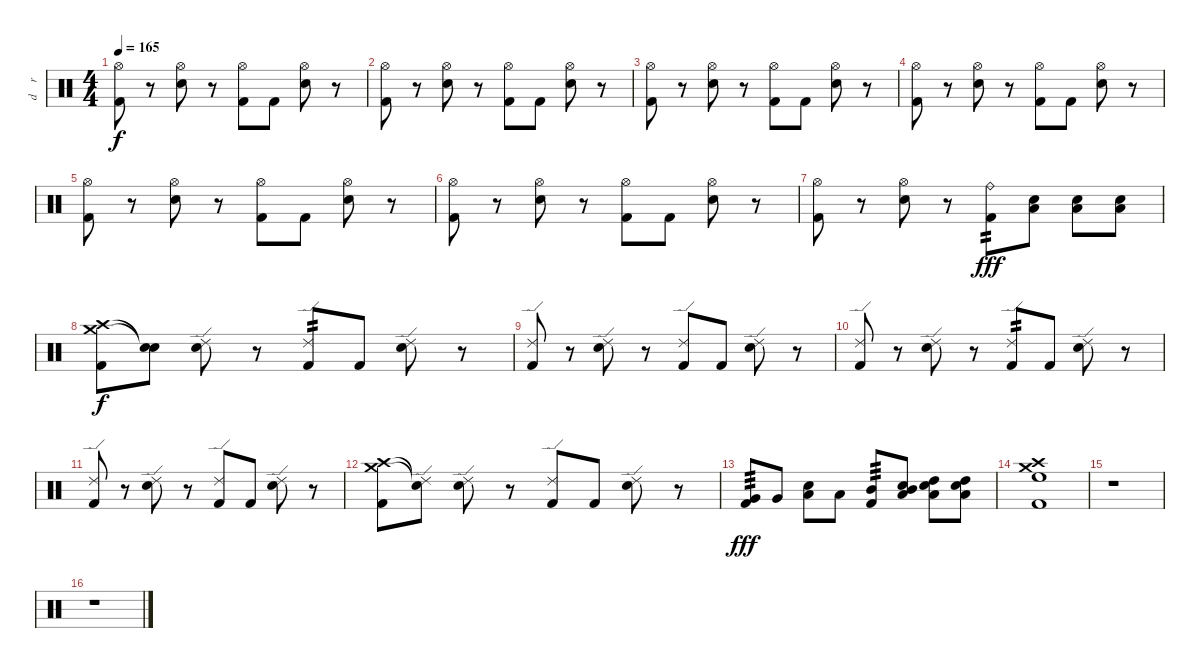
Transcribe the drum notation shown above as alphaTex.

\track ("d    r    u    m    s" "d    r    ") {instrument percussion}
\staff {score}
\articulation defaults
\ts (4 4)
\tempo 165
\clef neutral
\ks c
("Hi-Hat (open)" "Kick (hit) 2").8{dy f} r.8 ("Hi-Hat (open)" "Electric Snare (hit)").8 r.8 ("Hi-Hat (open)" "Kick (hit) 2").8 "Kick (hit) 2".8 ("Hi-Hat (open)" "Electric Snare (hit)").8 r.8 |
("Hi-Hat (open)" "Kick (hit) 2").8 r.8 ("Hi-Hat (open)" "Electric Snare (hit)").8 r.8 ("Hi-Hat (open)" "Kick (hit) 2").8 "Kick (hit) 2".8 ("Hi-Hat (open)" "Electric Snare (hit)").8 r.8 |
("Hi-Hat (open)" "Kick (hit) 2").8 r.8 ("Hi-Hat (open)" "Electric Snare (hit)").8 r.8 ("Hi-Hat (open)" "Kick (hit) 2").8 "Kick (hit) 2".8 ("Hi-Hat (open)" "Electric Snare (hit)").8 r.8 |
("Hi-Hat (open)" "Kick (hit) 2").8 r.8 ("Hi-Hat (open)" "Electric Snare (hit)").8 r.8 ("Hi-Hat (open)" "Kick (hit) 2").8 "Kick (hit) 2".8 ("Hi-Hat (open)" "Electric Snare (hit)").8 r.8 |
("Hi-Hat (open)" "Kick (hit) 2").8 r.8 ("Hi-Hat (open)" "Electric Snare (hit)").8 r.8 ("Hi-Hat (open)" "Kick (hit) 2").8 "Kick (hit) 2".8 ("Hi-Hat (open)" "Electric Snare (hit)").8 r.8 |
("Hi-Hat (open)" "Kick (hit) 2").8 r.8 ("Hi-Hat (open)" "Electric Snare (hit)").8 r.8 ("Hi-Hat (open)" "Kick (hit) 2").8 "Kick (hit) 2".8 ("Hi-Hat (open)" "Electric Snare (hit)").8 r.8 |
("Hi-Hat (open)" "Kick (hit) 2").8 r.8 ("Hi-Hat (open)" "Electric Snare (hit)").8 r.8 ("Ride (bell)" "Kick (hit) 2").8{tp 2 dy fff} ("Low Floor Tom (hit)" "Electric Snare (hit)").8 ("Low Floor Tom (hit)" "Electric Snare (hit)").8 ("Low Floor Tom (hit)" "Electric Snare (hit)").8 |
("Crash high (hit)" "Crash medium (hit)" "Kick (hit) 2").8{dy f} ("Snare (hit)"{t} "Snare (hit)"{t}).8 ("Ride (edge) 2" "Electric Snare (hit)").8 r.8 ("Ride (edge) 2" "Kick (hit) 2").8{tp 2} "Kick (hit) 2".8 ("Ride (edge) 2" "Electric Snare (hit)").8 r.8 |
("Ride (edge) 2" "Kick (hit) 2").8 r.8 ("Ride (edge) 2" "Electric Snare (hit)").8 r.8 ("Ride (edge) 2" "Kick (hit) 2").8 "Kick (hit) 2".8 ("Ride (edge) 2" "Electric Snare (hit)").8 r.8 |
("Ride (edge) 2" "Kick (hit) 2").8 r.8 ("Ride (edge) 2" "Electric Snare (hit)").8 r.8 ("Ride (edge) 2" "Kick (hit) 2").8{tp 2} "Kick (hit) 2".8 ("Ride (edge) 2" "Electric Snare (hit)").8 r.8 |
("Ride (edge) 2" "Kick (hit) 2").8 r.8 ("Ride (edge) 2" "Electric Snare (hit)").8 r.8 ("Ride (edge) 2" "Kick (hit) 2").8 "Kick (hit) 2".8 ("Ride (edge) 2" "Electric Snare (hit)").8 r.8 |
("Crash high (hit)" "Crash medium (hit)" "Kick (hit) 2").8 ("Ride (edge) 2"{t} "Snare (hit)"{t}).8 ("Ride (edge) 2" "Electric Snare (hit)").8 r.8 ("Ride (edge) 2" "Kick (hit) 2").8 "Kick (hit) 2".8 ("Ride (edge) 2" "Electric Snare (hit)").8 r.8 |
("Very Low Tom (hit)" "Kick (hit) 2").8{tp 3 dy fff} "Very Low Tom (hit)".8 ("Low Tom (hit)" "Electric Snare (hit)").8 "Low Tom (hit)".8 ("Mid Tom (hit)" "Kick (hit) 2").8{tp 3} ("Mid Tom (hit)" "Low Floor Tom (hit)" "Electric Snare (hit)").8 ("High Tom (hit)" "Low Floor Tom (hit)" "Electric Snare (hit)").8 ("High Tom (hit)" "Low Floor Tom (hit)" "Electric Snare (hit)").8 |
("Crash high (hit)" "Crash medium (hit)" "High Floor Tom (hit)" "Kick (hit) 2").1 |
r.1 |
r.1
